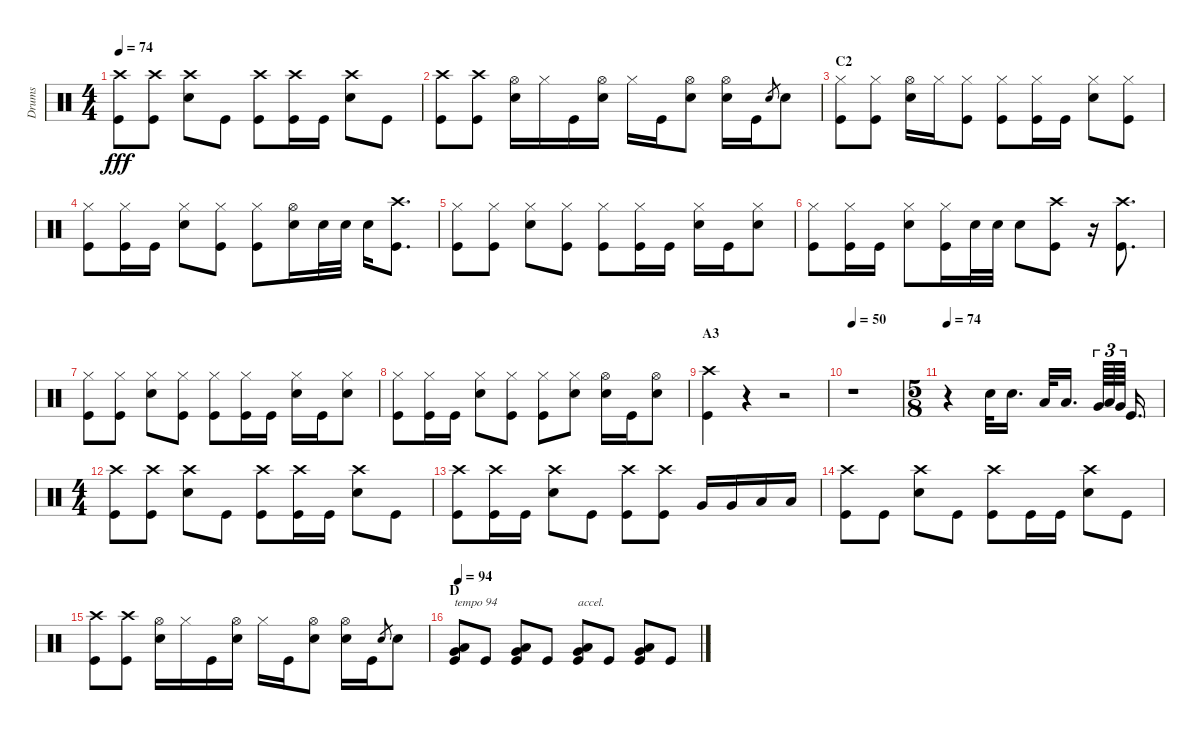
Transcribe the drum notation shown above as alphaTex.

\track ("Drums" "Drums") {instrument percussion}
\staff {score}
\articulation defaults
\ts (4 4)
\tempo 74
\clef neutral
\ks c
("Crash high (hit)" "Kick (hit)").8{dy fff} ("Crash high (hit)" "Kick (hit)").8 ("Crash high (hit)" "Snare (hit) 2").8 "Kick (hit)".8 ("Crash high (hit)" "Kick (hit)").8 ("Crash high (hit)" "Kick (hit)").16 "Kick (hit)".16 ("Crash high (hit)" "Snare (hit) 2").8 "Kick (hit)".8 |
("Crash high (hit)" "Kick (hit)").8 ("Crash high (hit)" "Kick (hit)").8 ("Hi-Hat (open)" "Snare (hit) 2").16 "Hi-Hat (closed)".16 "Kick (hit)".16 ("Hi-Hat (open)" "Snare (hit) 2").16 "Hi-Hat (closed)".16 "Kick (hit)".16 ("Hi-Hat (open)" "Snare (hit) 2").8 ("Hi-Hat (open)" "Snare (hit) 2").16 "Kick (hit)".16 "Snare (hit) 2".8{gr} "Snare (hit) 2".8 |
\section ("" "C2")
("Hi-Hat (closed)" "Kick (hit)").8 ("Hi-Hat (closed)" "Kick (hit)").8 ("Hi-Hat (open)" "Snare (hit) 2").16 "Hi-Hat (closed)".16 ("Hi-Hat (closed)" "Kick (hit)").8 ("Hi-Hat (closed)" "Kick (hit)").8 ("Hi-Hat (closed)" "Kick (hit)").16 "Kick (hit)".16 ("Hi-Hat (closed)" "Snare (hit) 2").8 ("Hi-Hat (closed)" "Kick (hit)").8 |
("Hi-Hat (closed)" "Kick (hit)").8 ("Hi-Hat (closed)" "Kick (hit)").16 "Kick (hit)".16 ("Hi-Hat (closed)" "Snare (hit) 2").8 ("Hi-Hat (closed)" "Kick (hit)").8 ("Hi-Hat (closed)" "Kick (hit)").8 ("Hi-Hat (open)" "Snare (hit) 2").16 "Snare (hit) 2".32 "Snare (hit) 2".32 "Snare (hit) 2".16 ("Crash high (hit)" "Kick (hit)").8{d} |
("Hi-Hat (closed)" "Kick (hit)").8 ("Hi-Hat (closed)" "Kick (hit)").8 ("Hi-Hat (closed)" "Snare (hit) 2").8 ("Hi-Hat (closed)" "Kick (hit)").8 ("Hi-Hat (closed)" "Kick (hit)").8 ("Hi-Hat (closed)" "Kick (hit)").16 "Kick (hit)".16 ("Hi-Hat (closed)" "Snare (hit) 2").16 "Kick (hit)".16 ("Hi-Hat (closed)" "Snare (hit) 2").8 |
("Hi-Hat (closed)" "Kick (hit)").8 ("Hi-Hat (closed)" "Kick (hit)").16 "Kick (hit)".16 ("Hi-Hat (closed)" "Snare (hit) 2").8 ("Hi-Hat (closed)" "Kick (hit)").16 "Snare (hit) 2".32 "Snare (hit) 2".32 "Snare (hit) 2".8 ("Crash high (hit)" "Kick (hit)").8 r.16 ("Crash high (hit)" "Kick (hit)").8{d} |
("Hi-Hat (closed)" "Kick (hit)").8 ("Hi-Hat (closed)" "Kick (hit)").8 ("Hi-Hat (closed)" "Snare (hit) 2").8 ("Hi-Hat (closed)" "Kick (hit)").8 ("Hi-Hat (closed)" "Kick (hit)").8 ("Hi-Hat (closed)" "Kick (hit)").16 "Kick (hit)".16 ("Hi-Hat (closed)" "Snare (hit) 2").16 "Kick (hit)".16 ("Hi-Hat (closed)" "Snare (hit) 2").8 |
("Hi-Hat (closed)" "Kick (hit)").8 ("Hi-Hat (closed)" "Kick (hit)").16 "Kick (hit)".16 ("Hi-Hat (closed)" "Snare (hit) 2").8 ("Hi-Hat (closed)" "Kick (hit)").8 ("Hi-Hat (closed)" "Kick (hit)").8 ("Hi-Hat (closed)" "Snare (hit) 2").8 ("Hi-Hat (open)" "Snare (hit) 2").16 "Kick (hit)".16 ("Hi-Hat (open)" "Snare (hit) 2").8 |
\section ("" "A3")
("Crash high (hit)" "Kick (hit)").4 r.4 r.2 |
\tempo 50
r.1 |
\ts (5 8)
\tempo 74
r.4 "Snare (hit) 2".32 "Snare (hit) 2".16{d} "Low Tom (hit)".32 "Low Tom (hit)".16{d} "Very Low Tom (hit)".64{tu (3 2)} "Low Tom (hit)".64{tu (3 2)} "Very Low Tom (hit)".64{tu (3 2)} "Kick (hit)".16{d} |
\ts (4 4)
("Crash high (hit)" "Kick (hit)").8 ("Crash high (hit)" "Kick (hit)").8 ("Crash high (hit)" "Snare (hit) 2").8 "Kick (hit)".8 ("Crash high (hit)" "Kick (hit)").8 ("Crash high (hit)" "Kick (hit)").16 "Kick (hit)".16 ("Crash high (hit)" "Snare (hit) 2").8 "Kick (hit)".8 |
("Crash high (hit)" "Kick (hit)").8 ("Crash high (hit)" "Kick (hit)").16 "Kick (hit)".16 ("Crash high (hit)" "Snare (hit) 2").8 "Kick (hit)".8 ("Crash high (hit)" "Kick (hit)").8 ("Crash high (hit)" "Kick (hit)").8 "Very Low Tom (hit)".16 "Very Low Tom (hit)".16 "Low Floor Tom (hit)".16 "Low Floor Tom (hit)".16 |
("Crash high (hit)" "Kick (hit)").8 "Kick (hit)".8 ("Crash high (hit)" "Snare (hit) 2").8 "Kick (hit)".8 ("Crash high (hit)" "Kick (hit)").8 "Kick (hit)".16 "Kick (hit)".16 ("Crash high (hit)" "Snare (hit) 2").8 "Kick (hit)".8 |
("Crash high (hit)" "Kick (hit)").8 ("Crash high (hit)" "Kick (hit)").8 ("Hi-Hat (open)" "Snare (hit) 2").16 "Hi-Hat (closed)".16 "Kick (hit)".16 ("Hi-Hat (open)" "Snare (hit) 2").16 "Hi-Hat (closed)".16 "Kick (hit)".16 ("Hi-Hat (open)" "Snare (hit) 2").8 ("Hi-Hat (open)" "Snare (hit) 2").16 "Kick (hit)".16 "Snare (hit) 2".8{gr} "Snare (hit) 2".8 |
\section ("" "D")
\tempo 94
("Very Low Tom (hit)" "Low Floor Tom (hit)" "Kick (hit)").8{txt "tempo 94"} "Kick (hit)".8 ("Very Low Tom (hit)" "Low Floor Tom (hit)" "Kick (hit)").8 "Kick (hit)".8 ("Very Low Tom (hit)" "Low Floor Tom (hit)" "Kick (hit)").8{txt "accel."} "Kick (hit)".8 ("Very Low Tom (hit)" "Low Floor Tom (hit)" "Kick (hit)").8 "Kick (hit)".8
